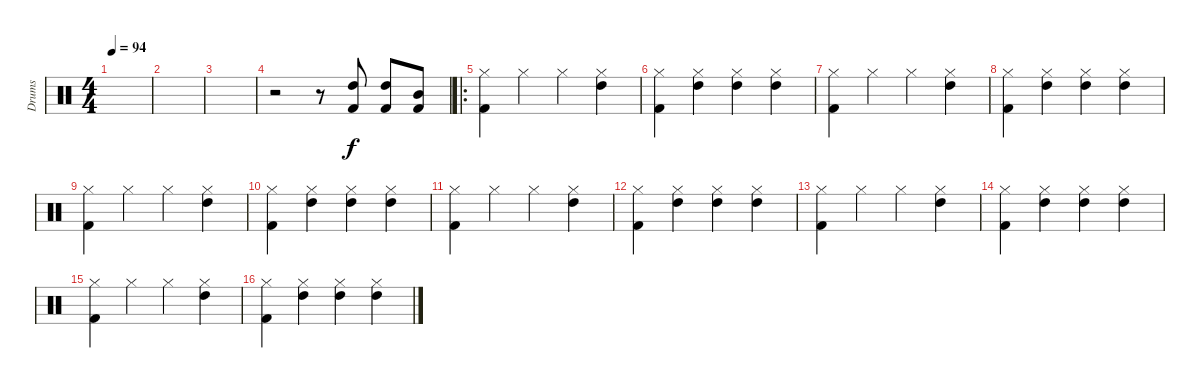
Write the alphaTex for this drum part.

\track ("Drums" "Drums") {instrument percussion}
\staff {score}
\articulation defaults
\ts (4 4)
\tempo 94
\clef neutral
\ks c
|
|
|
r.2 r.8 ("High Tom (hit)" "Kick (hit) 2").8 ("High Tom (hit)" "Kick (hit) 2").8 ("Mid Tom (hit)" "Kick (hit) 2").8 |
\ro
("Hi-Hat (closed)" "Kick (hit) 2").4 "Hi-Hat (closed)".4 "Hi-Hat (closed)".4 ("Hi-Hat (closed)" "High Tom (hit)").4 |
("Hi-Hat (closed)" "Kick (hit) 2").4 ("Hi-Hat (closed)" "High Tom (hit)").4 ("Hi-Hat (closed)" "High Tom (hit)").4 ("Hi-Hat (closed)" "High Tom (hit)").4 |
("Hi-Hat (closed)" "Kick (hit) 2").4 "Hi-Hat (closed)".4 "Hi-Hat (closed)".4 ("Hi-Hat (closed)" "High Tom (hit)").4 |
("Hi-Hat (closed)" "Kick (hit) 2").4 ("Hi-Hat (closed)" "High Tom (hit)").4 ("Hi-Hat (closed)" "High Tom (hit)").4 ("Hi-Hat (closed)" "High Tom (hit)").4 |
("Hi-Hat (closed)" "Kick (hit) 2").4 "Hi-Hat (closed)".4 "Hi-Hat (closed)".4 ("Hi-Hat (closed)" "High Tom (hit)").4 |
("Hi-Hat (closed)" "Kick (hit) 2").4 ("Hi-Hat (closed)" "High Tom (hit)").4 ("Hi-Hat (closed)" "High Tom (hit)").4 ("Hi-Hat (closed)" "High Tom (hit)").4 |
("Hi-Hat (closed)" "Kick (hit) 2").4 "Hi-Hat (closed)".4 "Hi-Hat (closed)".4 ("Hi-Hat (closed)" "High Tom (hit)").4 |
("Hi-Hat (closed)" "Kick (hit) 2").4 ("Hi-Hat (closed)" "High Tom (hit)").4 ("Hi-Hat (closed)" "High Tom (hit)").4 ("Hi-Hat (closed)" "High Tom (hit)").4 |
("Hi-Hat (closed)" "Kick (hit) 2").4 "Hi-Hat (closed)".4 "Hi-Hat (closed)".4 ("Hi-Hat (closed)" "High Tom (hit)").4 |
("Hi-Hat (closed)" "Kick (hit) 2").4 ("Hi-Hat (closed)" "High Tom (hit)").4 ("Hi-Hat (closed)" "High Tom (hit)").4 ("Hi-Hat (closed)" "High Tom (hit)").4 |
("Hi-Hat (closed)" "Kick (hit) 2").4 "Hi-Hat (closed)".4 "Hi-Hat (closed)".4 ("Hi-Hat (closed)" "High Tom (hit)").4 |
("Hi-Hat (closed)" "Kick (hit) 2").4 ("Hi-Hat (closed)" "High Tom (hit)").4 ("Hi-Hat (closed)" "High Tom (hit)").4 ("Hi-Hat (closed)" "High Tom (hit)").4
